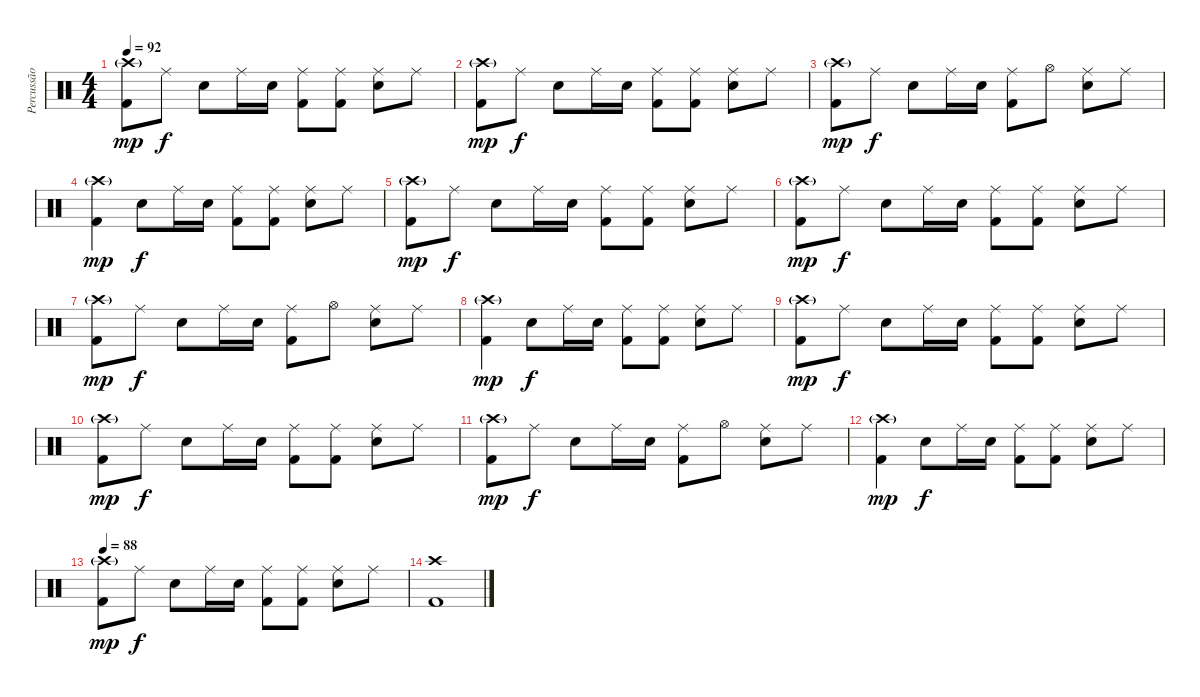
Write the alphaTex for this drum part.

\track ("Percussão - Drums" "Percussão ") {instrument percussion}
\staff {score}
\articulation defaults
\ts (4 4)
\tempo 92
\clef neutral
\ks c
("Crash high (hit)"{g} "Kick (hit) 2").8{dy mp} "Ride (middle)".8{dy f} "Snare (hit) 2".8 "Ride (middle)".16 "Snare (hit) 2".16 ("Ride (middle)" "Kick (hit) 2").8 ("Ride (middle)" "Kick (hit) 2").8 ("Ride (middle)" "Snare (hit) 2").8 "Ride (middle)".8 |
("Crash high (hit)"{g} "Kick (hit) 2").8{dy mp} "Ride (middle)".8{dy f} "Snare (hit) 2".8 "Ride (middle)".16 "Snare (hit) 2".16 ("Ride (middle)" "Kick (hit) 2").8 ("Ride (middle)" "Kick (hit) 2").8 ("Ride (middle)" "Snare (hit) 2").8 "Ride (middle)".8 |
("Crash high (hit)"{g} "Kick (hit) 2").8{dy mp} "Ride (middle)".8{dy f} "Snare (hit) 2".8 "Ride (middle)".16 "Snare (hit) 2".16 ("Ride (middle)" "Kick (hit) 2").8 "Hi-Hat (open)".8 ("Ride (middle)" "Snare (hit) 2").8 "Ride (middle)".8 |
("Crash high (hit)"{g} "Kick (hit) 2").4{dy mp} "Snare (hit) 2".8{dy f} "Ride (middle)".16 "Snare (hit) 2".16 ("Ride (middle)" "Kick (hit) 2").8 ("Ride (middle)" "Kick (hit) 2").8 ("Ride (middle)" "Snare (hit) 2").8 "Ride (middle)".8 |
("Crash high (hit)"{g} "Kick (hit) 2").8{dy mp} "Ride (middle)".8{dy f} "Snare (hit) 2".8 "Ride (middle)".16 "Snare (hit) 2".16 ("Ride (middle)" "Kick (hit) 2").8 ("Ride (middle)" "Kick (hit) 2").8 ("Ride (middle)" "Snare (hit) 2").8 "Ride (middle)".8 |
("Crash high (hit)"{g} "Kick (hit) 2").8{dy mp} "Ride (middle)".8{dy f} "Snare (hit) 2".8 "Ride (middle)".16 "Snare (hit) 2".16 ("Ride (middle)" "Kick (hit) 2").8 ("Ride (middle)" "Kick (hit) 2").8 ("Ride (middle)" "Snare (hit) 2").8 "Ride (middle)".8 |
("Crash high (hit)"{g} "Kick (hit) 2").8{dy mp} "Ride (middle)".8{dy f} "Snare (hit) 2".8 "Ride (middle)".16 "Snare (hit) 2".16 ("Ride (middle)" "Kick (hit) 2").8 "Hi-Hat (open)".8 ("Ride (middle)" "Snare (hit) 2").8 "Ride (middle)".8 |
("Crash high (hit)"{g} "Kick (hit) 2").4{dy mp} "Snare (hit) 2".8{dy f} "Ride (middle)".16 "Snare (hit) 2".16 ("Ride (middle)" "Kick (hit) 2").8 ("Ride (middle)" "Kick (hit) 2").8 ("Ride (middle)" "Snare (hit) 2").8 "Ride (middle)".8 |
("Crash high (hit)"{g} "Kick (hit) 2").8{dy mp} "Ride (middle)".8{dy f} "Snare (hit) 2".8 "Ride (middle)".16 "Snare (hit) 2".16 ("Ride (middle)" "Kick (hit) 2").8 ("Ride (middle)" "Kick (hit) 2").8 ("Ride (middle)" "Snare (hit) 2").8 "Ride (middle)".8 |
("Crash high (hit)"{g} "Kick (hit) 2").8{dy mp} "Ride (middle)".8{dy f} "Snare (hit) 2".8 "Ride (middle)".16 "Snare (hit) 2".16 ("Ride (middle)" "Kick (hit) 2").8 ("Ride (middle)" "Kick (hit) 2").8 ("Ride (middle)" "Snare (hit) 2").8 "Ride (middle)".8 |
("Crash high (hit)"{g} "Kick (hit) 2").8{dy mp} "Ride (middle)".8{dy f} "Snare (hit) 2".8 "Ride (middle)".16 "Snare (hit) 2".16 ("Ride (middle)" "Kick (hit) 2").8 "Hi-Hat (open)".8 ("Ride (middle)" "Snare (hit) 2").8 "Ride (middle)".8 |
("Crash high (hit)"{g} "Kick (hit) 2").4{dy mp} "Snare (hit) 2".8{dy f} "Ride (middle)".16 "Snare (hit) 2".16 ("Ride (middle)" "Kick (hit) 2").8 ("Ride (middle)" "Kick (hit) 2").8 ("Ride (middle)" "Snare (hit) 2").8 "Ride (middle)".8 |
\tempo 88
("Crash high (hit)"{g} "Kick (hit) 2").8{dy mp} "Ride (middle)".8{dy f} "Snare (hit) 2".8 "Ride (middle)".16 "Snare (hit) 2".16 ("Ride (middle)" "Kick (hit) 2").8 ("Ride (middle)" "Kick (hit) 2").8 ("Ride (middle)" "Snare (hit) 2").8 "Ride (middle)".8 |
("Crash high (hit)" "Kick (hit) 2").1
